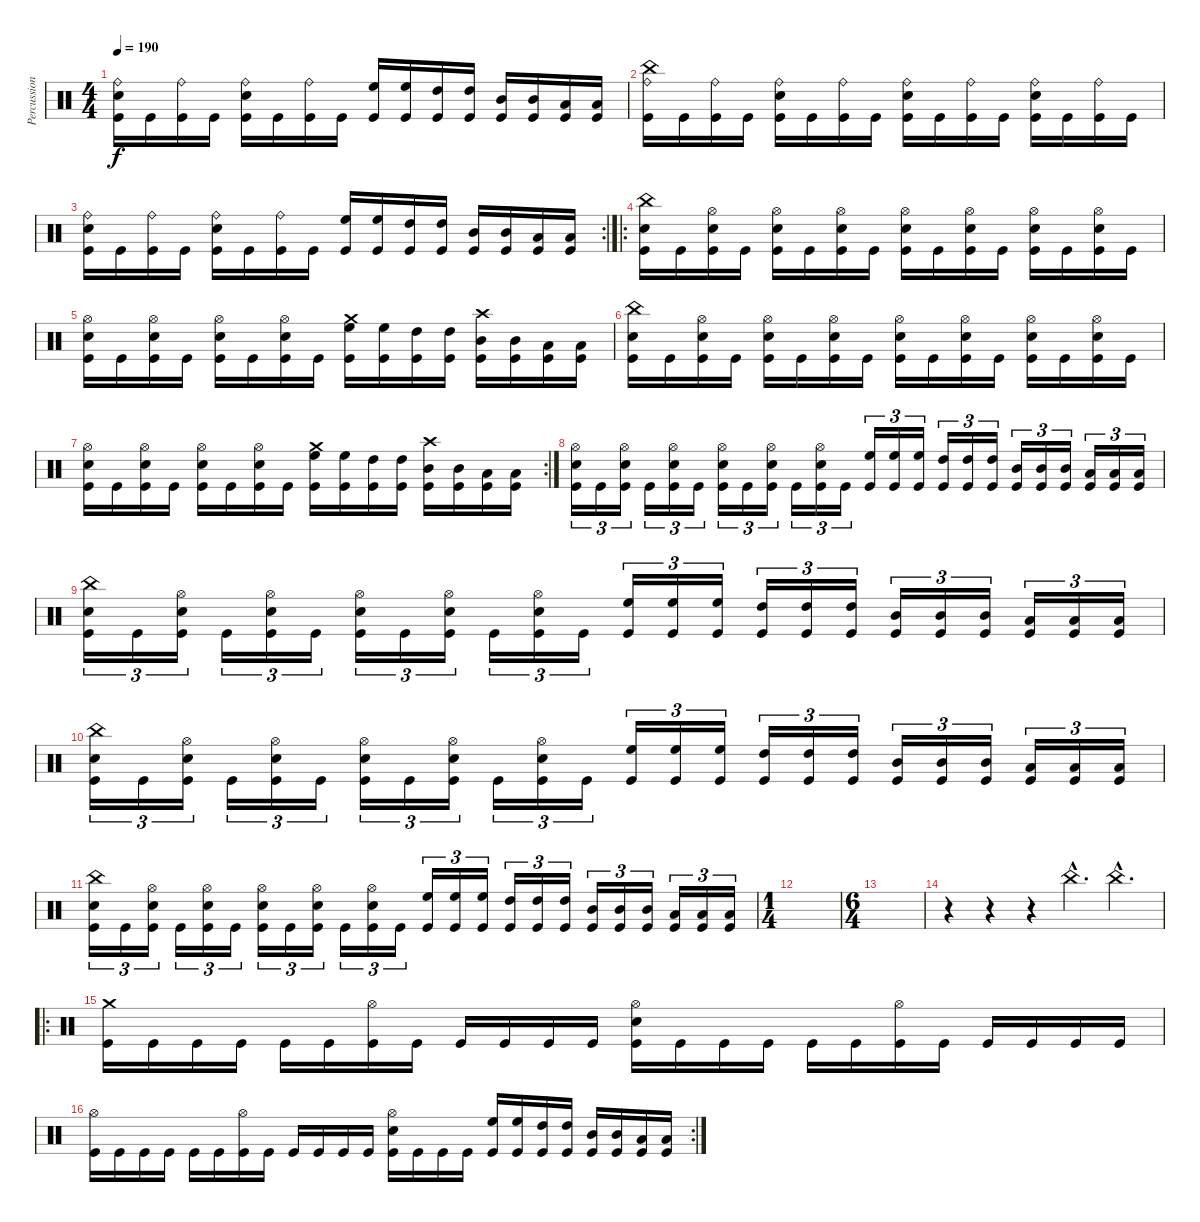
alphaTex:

\track ("Percussion" "Percussion") {instrument percussion}
\staff {score}
\articulation defaults
\ts (4 4)
\tempo 190
\clef neutral
\ks c
("Electric Snare (hit)" "Ride (bell)" "Kick (hit)").16{dy f} "Kick (hit)".16 ("Ride (bell)" "Kick (hit)").16 "Kick (hit)".16 ("Electric Snare (hit)" "Ride (bell)" "Kick (hit)").16 "Kick (hit)".16 ("Ride (bell)" "Kick (hit)").16 "Kick (hit)".16 ("High Floor Tom (hit)" "Kick (hit)").16 ("High Floor Tom (hit)" "Kick (hit)").16 ("High Tom (hit)" "Kick (hit)").16 ("High Tom (hit)" "Kick (hit)").16 ("Mid Tom (hit)" "Kick (hit)").16 ("Mid Tom (hit)" "Kick (hit)").16 ("Low Tom (hit)" "Kick (hit)").16 ("Low Tom (hit)" "Kick (hit)").16 |
("China (hit)" "Ride (bell)" "Kick (hit)").16 "Kick (hit)".16 ("Ride (bell)" "Kick (hit)").16 "Kick (hit)".16 ("Electric Snare (hit)" "Ride (bell)" "Kick (hit)").16 "Kick (hit)".16 ("Ride (bell)" "Kick (hit)").16 "Kick (hit)".16 ("Electric Snare (hit)" "Ride (bell)" "Kick (hit)").16 "Kick (hit)".16 ("Ride (bell)" "Kick (hit)").16 "Kick (hit)".16 ("Electric Snare (hit)" "Ride (bell)" "Kick (hit)").16 "Kick (hit)".16 ("Ride (bell)" "Kick (hit)").16 "Kick (hit)".16 |
\rc 2
("Electric Snare (hit)" "Ride (bell)" "Kick (hit)").16 "Kick (hit)".16 ("Ride (bell)" "Kick (hit)").16 "Kick (hit)".16 ("Electric Snare (hit)" "Ride (bell)" "Kick (hit)").16 "Kick (hit)".16 ("Ride (bell)" "Kick (hit)").16 "Kick (hit)".16 ("High Floor Tom (hit)" "Kick (hit)").16 ("High Floor Tom (hit)" "Kick (hit)").16 ("High Tom (hit)" "Kick (hit)").16 ("High Tom (hit)" "Kick (hit)").16 ("Mid Tom (hit)" "Kick (hit)").16 ("Mid Tom (hit)" "Kick (hit)").16 ("Low Tom (hit)" "Kick (hit)").16 ("Low Tom (hit)" "Kick (hit)").16 |
\ro
("Electric Snare (hit)" "China (hit)" "Kick (hit)").16 "Kick (hit)".16 ("Electric Snare (hit)" "Hi-Hat (open)" "Kick (hit)").16 "Kick (hit)".16 ("Electric Snare (hit)" "Hi-Hat (open)" "Kick (hit)").16 "Kick (hit)".16 ("Electric Snare (hit)" "Hi-Hat (open)" "Kick (hit)").16 "Kick (hit)".16 ("Electric Snare (hit)" "Hi-Hat (open)" "Kick (hit)").16 "Kick (hit)".16 ("Electric Snare (hit)" "Hi-Hat (open)" "Kick (hit)").16 "Kick (hit)".16 ("Electric Snare (hit)" "Hi-Hat (open)" "Kick (hit)").16 "Kick (hit)".16 ("Electric Snare (hit)" "Hi-Hat (open)" "Kick (hit)").16 "Kick (hit)".16 |
("Electric Snare (hit)" "Hi-Hat (open)" "Kick (hit)").16 "Kick (hit)".16 ("Electric Snare (hit)" "Hi-Hat (open)" "Kick (hit)").16 "Kick (hit)".16 ("Electric Snare (hit)" "Hi-Hat (open)" "Kick (hit)").16 "Kick (hit)".16 ("Electric Snare (hit)" "Hi-Hat (open)" "Kick (hit)").16 "Kick (hit)".16 ("Crash medium (hit)" "High Floor Tom (hit)" "Kick (hit)").16 ("High Floor Tom (hit)" "Kick (hit)").16 ("High Tom (hit)" "Kick (hit)").16 ("High Tom (hit)" "Kick (hit)").16 ("Crash high (hit)" "Mid Tom (hit)" "Kick (hit)").16 ("Mid Tom (hit)" "Kick (hit)").16 ("Low Tom (hit)" "Kick (hit)").16 ("Low Tom (hit)" "Kick (hit)").16 |
("Electric Snare (hit)" "China (hit)" "Kick (hit)").16 "Kick (hit)".16 ("Electric Snare (hit)" "Hi-Hat (open)" "Kick (hit)").16 "Kick (hit)".16 ("Electric Snare (hit)" "Hi-Hat (open)" "Kick (hit)").16 "Kick (hit)".16 ("Electric Snare (hit)" "Hi-Hat (open)" "Kick (hit)").16 "Kick (hit)".16 ("Electric Snare (hit)" "Hi-Hat (open)" "Kick (hit)").16 "Kick (hit)".16 ("Electric Snare (hit)" "Hi-Hat (open)" "Kick (hit)").16 "Kick (hit)".16 ("Electric Snare (hit)" "Hi-Hat (open)" "Kick (hit)").16 "Kick (hit)".16 ("Electric Snare (hit)" "Hi-Hat (open)" "Kick (hit)").16 "Kick (hit)".16 |
\rc 2
("Electric Snare (hit)" "Hi-Hat (open)" "Kick (hit)").16 "Kick (hit)".16 ("Electric Snare (hit)" "Hi-Hat (open)" "Kick (hit)").16 "Kick (hit)".16 ("Electric Snare (hit)" "Hi-Hat (open)" "Kick (hit)").16 "Kick (hit)".16 ("Electric Snare (hit)" "Hi-Hat (open)" "Kick (hit)").16 "Kick (hit)".16 ("Crash medium (hit)" "High Floor Tom (hit)" "Kick (hit)").16 ("High Floor Tom (hit)" "Kick (hit)").16 ("High Tom (hit)" "Kick (hit)").16 ("High Tom (hit)" "Kick (hit)").16 ("Crash high (hit)" "Mid Tom (hit)" "Kick (hit)").16 ("Mid Tom (hit)" "Kick (hit)").16 ("Low Tom (hit)" "Kick (hit)").16 ("Low Tom (hit)" "Kick (hit)").16 |
("Hi-Hat (open)" "Electric Snare (hit)" "Kick (hit)").16{tu (3 2)} "Kick (hit)".16{tu (3 2)} ("Hi-Hat (open)" "Electric Snare (hit)" "Kick (hit)").16{tu (3 2)} "Kick (hit)".16{tu (3 2)} ("Hi-Hat (open)" "Electric Snare (hit)" "Kick (hit)").16{tu (3 2)} "Kick (hit)".16{tu (3 2)} ("Hi-Hat (open)" "Electric Snare (hit)" "Kick (hit)").16{tu (3 2)} "Kick (hit)".16{tu (3 2)} ("Hi-Hat (open)" "Electric Snare (hit)" "Kick (hit)").16{tu (3 2)} "Kick (hit)".16{tu (3 2)} ("Hi-Hat (open)" "Electric Snare (hit)" "Kick (hit)").16{tu (3 2)} "Kick (hit)".16{tu (3 2)} ("High Floor Tom (hit)" "Kick (hit)").16{tu (3 2)} ("High Floor Tom (hit)" "Kick (hit)").16{tu (3 2)} ("High Floor Tom (hit)" "Kick (hit)").16{tu (3 2)} ("High Tom (hit)" "Kick (hit)").16{tu (3 2)} ("High Tom (hit)" "Kick (hit)").16{tu (3 2)} ("High Tom (hit)" "Kick (hit)").16{tu (3 2)} ("Mid Tom (hit)" "Kick (hit)").16{tu (3 2)} ("Mid Tom (hit)" "Kick (hit)").16{tu (3 2)} ("Mid Tom (hit)" "Kick (hit)").16{tu (3 2)} ("Low Tom (hit)" "Kick (hit)").16{tu (3 2)} ("Low Tom (hit)" "Kick (hit)").16{tu (3 2)} ("Low Tom (hit)" "Kick (hit)").16{tu (3 2)} |
("China (hit)" "Electric Snare (hit)" "Kick (hit)").16{tu (3 2)} "Kick (hit)".16{tu (3 2)} ("Hi-Hat (open)" "Electric Snare (hit)" "Kick (hit)").16{tu (3 2)} "Kick (hit)".16{tu (3 2)} ("Hi-Hat (open)" "Electric Snare (hit)" "Kick (hit)").16{tu (3 2)} "Kick (hit)".16{tu (3 2)} ("Hi-Hat (open)" "Electric Snare (hit)" "Kick (hit)").16{tu (3 2)} "Kick (hit)".16{tu (3 2)} ("Hi-Hat (open)" "Electric Snare (hit)" "Kick (hit)").16{tu (3 2)} "Kick (hit)".16{tu (3 2)} ("Hi-Hat (open)" "Electric Snare (hit)" "Kick (hit)").16{tu (3 2)} "Kick (hit)".16{tu (3 2)} ("High Floor Tom (hit)" "Kick (hit)").16{tu (3 2)} ("High Floor Tom (hit)" "Kick (hit)").16{tu (3 2)} ("High Floor Tom (hit)" "Kick (hit)").16{tu (3 2)} ("High Tom (hit)" "Kick (hit)").16{tu (3 2)} ("High Tom (hit)" "Kick (hit)").16{tu (3 2)} ("High Tom (hit)" "Kick (hit)").16{tu (3 2)} ("Mid Tom (hit)" "Kick (hit)").16{tu (3 2)} ("Mid Tom (hit)" "Kick (hit)").16{tu (3 2)} ("Mid Tom (hit)" "Kick (hit)").16{tu (3 2)} ("Low Tom (hit)" "Kick (hit)").16{tu (3 2)} ("Low Tom (hit)" "Kick (hit)").16{tu (3 2)} ("Low Tom (hit)" "Kick (hit)").16{tu (3 2)} |
("China (hit)" "Electric Snare (hit)" "Kick (hit)").16{tu (3 2)} "Kick (hit)".16{tu (3 2)} ("Hi-Hat (open)" "Electric Snare (hit)" "Kick (hit)").16{tu (3 2)} "Kick (hit)".16{tu (3 2)} ("Hi-Hat (open)" "Electric Snare (hit)" "Kick (hit)").16{tu (3 2)} "Kick (hit)".16{tu (3 2)} ("Hi-Hat (open)" "Electric Snare (hit)" "Kick (hit)").16{tu (3 2)} "Kick (hit)".16{tu (3 2)} ("Hi-Hat (open)" "Electric Snare (hit)" "Kick (hit)").16{tu (3 2)} "Kick (hit)".16{tu (3 2)} ("Hi-Hat (open)" "Electric Snare (hit)" "Kick (hit)").16{tu (3 2)} "Kick (hit)".16{tu (3 2)} ("High Floor Tom (hit)" "Kick (hit)").16{tu (3 2)} ("High Floor Tom (hit)" "Kick (hit)").16{tu (3 2)} ("High Floor Tom (hit)" "Kick (hit)").16{tu (3 2)} ("High Tom (hit)" "Kick (hit)").16{tu (3 2)} ("High Tom (hit)" "Kick (hit)").16{tu (3 2)} ("High Tom (hit)" "Kick (hit)").16{tu (3 2)} ("Mid Tom (hit)" "Kick (hit)").16{tu (3 2)} ("Mid Tom (hit)" "Kick (hit)").16{tu (3 2)} ("Mid Tom (hit)" "Kick (hit)").16{tu (3 2)} ("Low Tom (hit)" "Kick (hit)").16{tu (3 2)} ("Low Tom (hit)" "Kick (hit)").16{tu (3 2)} ("Low Tom (hit)" "Kick (hit)").16{tu (3 2)} |
("China (hit)" "Electric Snare (hit)" "Kick (hit)").16{tu (3 2)} "Kick (hit)".16{tu (3 2)} ("Hi-Hat (open)" "Electric Snare (hit)" "Kick (hit)").16{tu (3 2)} "Kick (hit)".16{tu (3 2)} ("Hi-Hat (open)" "Electric Snare (hit)" "Kick (hit)").16{tu (3 2)} "Kick (hit)".16{tu (3 2)} ("Hi-Hat (open)" "Electric Snare (hit)" "Kick (hit)").16{tu (3 2)} "Kick (hit)".16{tu (3 2)} ("Hi-Hat (open)" "Electric Snare (hit)" "Kick (hit)").16{tu (3 2)} "Kick (hit)".16{tu (3 2)} ("Hi-Hat (open)" "Electric Snare (hit)" "Kick (hit)").16{tu (3 2)} "Kick (hit)".16{tu (3 2)} ("High Floor Tom (hit)" "Kick (hit)").16{tu (3 2)} ("High Floor Tom (hit)" "Kick (hit)").16{tu (3 2)} ("High Floor Tom (hit)" "Kick (hit)").16{tu (3 2)} ("High Tom (hit)" "Kick (hit)").16{tu (3 2)} ("High Tom (hit)" "Kick (hit)").16{tu (3 2)} ("High Tom (hit)" "Kick (hit)").16{tu (3 2)} ("Mid Tom (hit)" "Kick (hit)").16{tu (3 2)} ("Mid Tom (hit)" "Kick (hit)").16{tu (3 2)} ("Mid Tom (hit)" "Kick (hit)").16{tu (3 2)} ("Low Tom (hit)" "Kick (hit)").16{tu (3 2)} ("Low Tom (hit)" "Kick (hit)").16{tu (3 2)} ("Low Tom (hit)" "Kick (hit)").16{tu (3 2)} |
\ts (1 4)
|
\ts (6 4)
|
r.4 r.4 r.4 "China (hit)"{hac}.4{d} "China (hit)"{hac}.4{d} |
\ro
("Crash medium (hit)" "Kick (hit)").16 "Kick (hit)".16 "Kick (hit)".16 "Kick (hit)".16 "Kick (hit)".16 "Kick (hit)".16 ("Hi-Hat (open)" "Kick (hit)").16 "Kick (hit)".16 "Kick (hit)".16 "Kick (hit)".16 "Kick (hit)".16 "Kick (hit)".16 ("Electric Snare (hit)" "Hi-Hat (open)" "Kick (hit)").16 "Kick (hit)".16 "Kick (hit)".16 "Kick (hit)".16 "Kick (hit)".16 "Kick (hit)".16 ("Hi-Hat (open)" "Kick (hit)").16 "Kick (hit)".16 "Kick (hit)".16 "Kick (hit)".16 "Kick (hit)".16 "Kick (hit)".16 |
\rc 2
("Hi-Hat (open)" "Kick (hit)").16 "Kick (hit)".16 "Kick (hit)".16 "Kick (hit)".16 "Kick (hit)".16 "Kick (hit)".16 ("Hi-Hat (open)" "Kick (hit)").16 "Kick (hit)".16 "Kick (hit)".16 "Kick (hit)".16 "Kick (hit)".16 "Kick (hit)".16 ("Electric Snare (hit)" "Hi-Hat (open)" "Kick (hit)").16 "Kick (hit)".16 "Kick (hit)".16 "Kick (hit)".16 ("High Floor Tom (hit)" "Kick (hit)").16 ("High Floor Tom (hit)" "Kick (hit)").16 ("High Tom (hit)" "Kick (hit)").16 ("High Tom (hit)" "Kick (hit)").16 ("Mid Tom (hit)" "Kick (hit)").16 ("Mid Tom (hit)" "Kick (hit)").16 ("Low Tom (hit)" "Kick (hit)").16 ("Low Tom (hit)" "Kick (hit)").16
